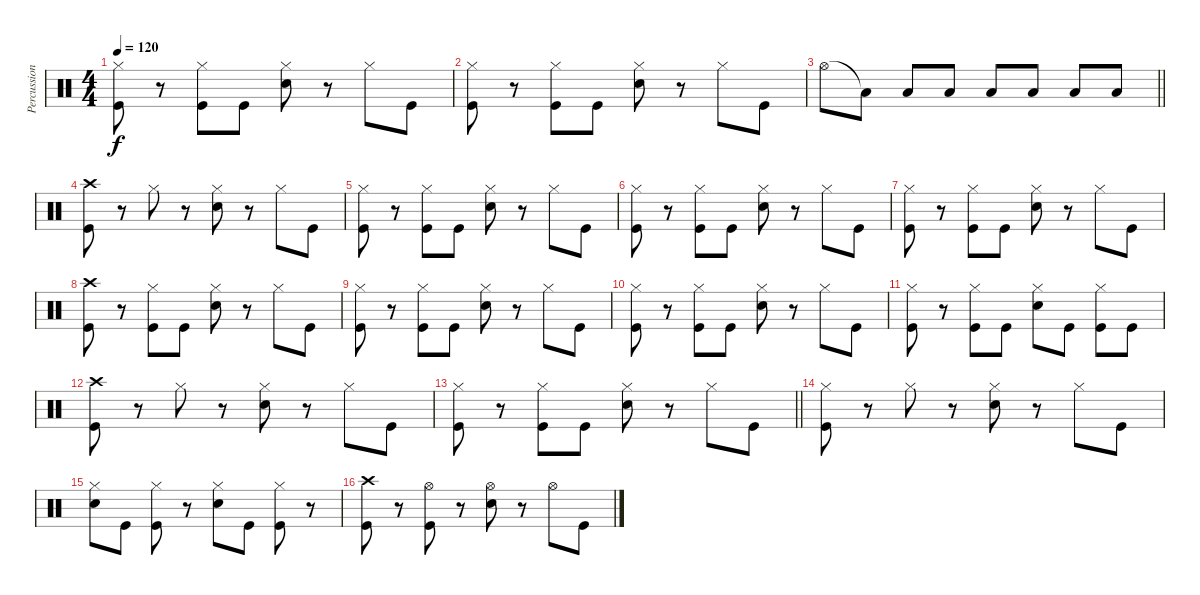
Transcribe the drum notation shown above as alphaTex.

\track ("Percussion" "Percussion") {instrument percussion}
\staff {score}
\articulation defaults
\ts (4 4)
\tempo 120
\clef neutral
\ks c
("Hi-Hat (closed)" "Kick (hit)").8{dy f} r.8 ("Hi-Hat (closed)" "Kick (hit)").8 "Kick (hit)".8 ("Hi-Hat (closed)" "Electric Snare (hit)").8 r.8 "Hi-Hat (closed)".8 "Kick (hit)".8 |
("Hi-Hat (closed)" "Kick (hit)").8 r.8 ("Hi-Hat (closed)" "Kick (hit)").8 "Kick (hit)".8 ("Hi-Hat (closed)" "Electric Snare (hit)").8 r.8 "Hi-Hat (closed)".8 "Kick (hit)".8 |
\barLineRight lightlight "Hi-Hat (open)".8 "Low Floor Tom (hit)"{t}.8 "Low Floor Tom (hit)".8 "Low Floor Tom (hit)".8 "Low Floor Tom (hit)".8 "Low Floor Tom (hit)".8 "Low Floor Tom (hit)".8 "Low Floor Tom (hit)".8
|
("Crash high (hit)" "Kick (hit)").8 r.8 "Hi-Hat (closed)".8 r.8 ("Hi-Hat (closed)" "Electric Snare (hit)").8 r.8 "Hi-Hat (closed)".8 "Kick (hit)".8 |
("Hi-Hat (closed)" "Kick (hit)").8 r.8 ("Hi-Hat (closed)" "Kick (hit)").8 "Kick (hit)".8 ("Hi-Hat (closed)" "Electric Snare (hit)").8 r.8 "Hi-Hat (closed)".8 "Kick (hit)".8 |
("Hi-Hat (closed)" "Kick (hit)").8 r.8 ("Hi-Hat (closed)" "Kick (hit)").8 "Kick (hit)".8 ("Hi-Hat (closed)" "Electric Snare (hit)").8 r.8 "Hi-Hat (closed)".8 "Kick (hit)".8 |
("Hi-Hat (closed)" "Kick (hit)").8 r.8 ("Hi-Hat (closed)" "Kick (hit)").8 "Kick (hit)".8 ("Hi-Hat (closed)" "Electric Snare (hit)").8 r.8 "Hi-Hat (closed)".8 "Kick (hit)".8 |
("Crash high (hit)" "Kick (hit)").8 r.8 ("Hi-Hat (closed)" "Kick (hit)").8 "Kick (hit)".8 ("Hi-Hat (closed)" "Electric Snare (hit)").8 r.8 "Hi-Hat (closed)".8 "Kick (hit)".8 |
("Hi-Hat (closed)" "Kick (hit)").8 r.8 ("Hi-Hat (closed)" "Kick (hit)").8 "Kick (hit)".8 ("Hi-Hat (closed)" "Electric Snare (hit)").8 r.8 "Hi-Hat (closed)".8 "Kick (hit)".8 |
("Hi-Hat (closed)" "Kick (hit)").8 r.8 ("Hi-Hat (closed)" "Kick (hit)").8 "Kick (hit)".8 ("Hi-Hat (closed)" "Electric Snare (hit)").8 r.8 "Hi-Hat (closed)".8 "Kick (hit)".8 |
("Hi-Hat (closed)" "Kick (hit)").8 r.8 ("Hi-Hat (closed)" "Kick (hit)").8 "Kick (hit)".8 ("Hi-Hat (closed)" "Electric Snare (hit)").8 "Kick (hit)".8 ("Hi-Hat (closed)" "Kick (hit)").8 "Kick (hit)".8 |
("Crash high (hit)" "Kick (hit)").8 r.8 "Hi-Hat (closed)".8 r.8 ("Hi-Hat (closed)" "Electric Snare (hit)").8 r.8 "Hi-Hat (closed)".8 "Kick (hit)".8 |
\barLineRight lightlight
("Hi-Hat (closed)" "Kick (hit)").8 r.8 ("Hi-Hat (closed)" "Kick (hit)").8 "Kick (hit)".8 ("Hi-Hat (closed)" "Electric Snare (hit)").8 r.8 "Hi-Hat (closed)".8 "Kick (hit)".8 |
("Hi-Hat (closed)" "Kick (hit)").8 r.8 "Hi-Hat (closed)".8 r.8 ("Hi-Hat (closed)" "Electric Snare (hit)").8 r.8 "Hi-Hat (closed)".8 "Kick (hit)".8 |
("Hi-Hat (closed)" "Electric Snare (hit)").8 "Kick (hit)".8 ("Hi-Hat (closed)" "Kick (hit)").8 r.8 ("Hi-Hat (closed)" "Electric Snare (hit)").8 "Kick (hit)".8 ("Hi-Hat (closed)" "Kick (hit)").8 r.8 |
("Crash high (hit)" "Kick (hit)").8 r.8 ("Hi-Hat (open)" "Kick (hit)").8 r.8 ("Hi-Hat (open)" "Electric Snare (hit)").8 r.8 "Hi-Hat (open)".8 "Kick (hit)".8
